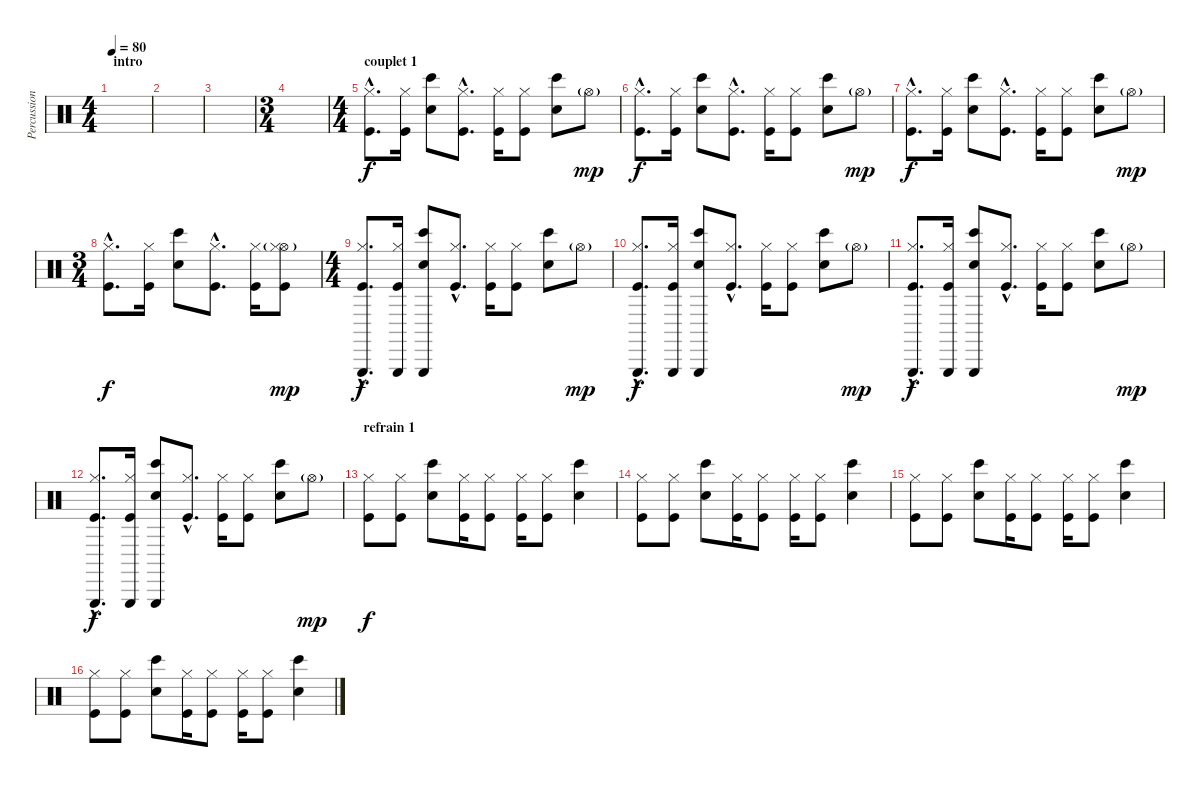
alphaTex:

\track ("Percussions" "Percussion") {instrument percussion}
\staff {score}
\articulation defaults
\ts (4 4)
\section ("" "intro")
\tempo 80
\clef neutral
\ks c
|
|
|
\ts (3 4)
|
\ts (4 4)
\section ("" "couplet 1")
("Hi-Hat (closed)"{hac} "Kick (hit)"{hac}).8{d} ("Hi-Hat (closed)" "Kick (hit)").16 ("Electric Snare (hit)" "Bongo High (hit)").8 ("Hi-Hat (closed)"{hac} "Kick (hit)"{hac}).8{d} ("Hi-Hat (closed)" "Kick (hit)").16 ("Hi-Hat (closed)" "Kick (hit)").8 ("Electric Snare (hit)" "Bongo High (hit)").8 "Hi-Hat (open)"{g}.8{dy mp} |
("Hi-Hat (closed)"{hac} "Kick (hit)"{hac}).8{d dy f} ("Hi-Hat (closed)" "Kick (hit)").16 ("Electric Snare (hit)" "Bongo High (hit)").8 ("Hi-Hat (closed)"{hac} "Kick (hit)"{hac}).8{d} ("Hi-Hat (closed)" "Kick (hit)").16 ("Hi-Hat (closed)" "Kick (hit)").8 ("Electric Snare (hit)" "Bongo High (hit)").8 "Hi-Hat (open)"{g}.8{dy mp} |
("Hi-Hat (closed)"{hac} "Kick (hit)"{hac}).8{d dy f} ("Hi-Hat (closed)" "Kick (hit)").16 ("Electric Snare (hit)" "Bongo High (hit)").8 ("Hi-Hat (closed)"{hac} "Kick (hit)"{hac}).8{d} ("Hi-Hat (closed)" "Kick (hit)").16 ("Hi-Hat (closed)" "Kick (hit)").8 ("Electric Snare (hit)" "Bongo High (hit)").8 "Hi-Hat (open)"{g}.8{dy mp} |
\ts (3 4)
("Hi-Hat (closed)"{hac} "Kick (hit)"{hac}).8{d dy f} ("Hi-Hat (closed)" "Kick (hit)").16 ("Electric Snare (hit)" "Bongo High (hit)").8 ("Hi-Hat (closed)"{hac} "Kick (hit)"{hac}).8{d} ("Hi-Hat (closed)" "Kick (hit)").16 ("Hi-Hat (open)"{g} "Hi-Hat (closed)" "Kick (hit)").8{dy mp} |
\ts (4 4)
("Triangle (hit)"{hac} "Hi-Hat (closed)"{hac} "Kick (hit)"{hac}).8{d dy f} ("Triangle (hit)" "Hi-Hat (closed)" "Kick (hit)").16 ("Triangle (hit)" "Electric Snare (hit)" "Bongo High (hit)").8 ("Hi-Hat (closed)"{hac} "Kick (hit)"{hac}).8{d} ("Hi-Hat (closed)" "Kick (hit)").16 ("Hi-Hat (closed)" "Kick (hit)").8 ("Electric Snare (hit)" "Bongo High (hit)").8 "Hi-Hat (open)"{g}.8{dy mp} |
("Triangle (hit)"{hac} "Hi-Hat (closed)"{hac} "Kick (hit)"{hac}).8{d dy f} ("Triangle (hit)" "Hi-Hat (closed)" "Kick (hit)").16 ("Triangle (hit)" "Electric Snare (hit)" "Bongo High (hit)").8 ("Hi-Hat (closed)"{hac} "Kick (hit)"{hac}).8{d} ("Hi-Hat (closed)" "Kick (hit)").16 ("Hi-Hat (closed)" "Kick (hit)").8 ("Electric Snare (hit)" "Bongo High (hit)").8 "Hi-Hat (open)"{g}.8{dy mp} |
("Triangle (hit)"{hac} "Hi-Hat (closed)"{hac} "Kick (hit)"{hac}).8{d dy f} ("Triangle (hit)" "Hi-Hat (closed)" "Kick (hit)").16 ("Triangle (hit)" "Electric Snare (hit)" "Bongo High (hit)").8 ("Hi-Hat (closed)"{hac} "Kick (hit)"{hac}).8{d} ("Hi-Hat (closed)" "Kick (hit)").16 ("Hi-Hat (closed)" "Kick (hit)").8 ("Electric Snare (hit)" "Bongo High (hit)").8 "Hi-Hat (open)"{g}.8{dy mp} |
("Triangle (hit)"{hac} "Hi-Hat (closed)"{hac} "Kick (hit)"{hac}).8{d dy f} ("Triangle (hit)" "Hi-Hat (closed)" "Kick (hit)").16 ("Triangle (hit)" "Electric Snare (hit)" "Bongo High (hit)").8 ("Hi-Hat (closed)"{hac} "Kick (hit)"{hac}).8{d} ("Hi-Hat (closed)" "Kick (hit)").16 ("Hi-Hat (closed)" "Kick (hit)").8 ("Electric Snare (hit)" "Bongo High (hit)").8 "Hi-Hat (open)"{g}.8{dy mp} |
\section ("" "refrain 1")
("Hi-Hat (closed)" "Kick (hit)").8{dy f} ("Hi-Hat (closed)" "Kick (hit)").8 ("Electric Snare (hit)" "Bongo High (hit)").8 ("Hi-Hat (closed)" "Kick (hit)").16 ("Hi-Hat (closed)" "Kick (hit)").8 ("Hi-Hat (closed)" "Kick (hit)").16 ("Hi-Hat (closed)" "Kick (hit)").8 ("Electric Snare (hit)" "Bongo High (hit)").4 |
("Hi-Hat (closed)" "Kick (hit)").8 ("Hi-Hat (closed)" "Kick (hit)").8 ("Electric Snare (hit)" "Bongo High (hit)").8 ("Hi-Hat (closed)" "Kick (hit)").16 ("Hi-Hat (closed)" "Kick (hit)").8 ("Hi-Hat (closed)" "Kick (hit)").16 ("Hi-Hat (closed)" "Kick (hit)").8 ("Electric Snare (hit)" "Bongo High (hit)").4 |
("Hi-Hat (closed)" "Kick (hit)").8 ("Hi-Hat (closed)" "Kick (hit)").8 ("Electric Snare (hit)" "Bongo High (hit)").8 ("Hi-Hat (closed)" "Kick (hit)").16 ("Hi-Hat (closed)" "Kick (hit)").8 ("Hi-Hat (closed)" "Kick (hit)").16 ("Hi-Hat (closed)" "Kick (hit)").8 ("Electric Snare (hit)" "Bongo High (hit)").4 |
("Hi-Hat (closed)" "Kick (hit)").8 ("Hi-Hat (closed)" "Kick (hit)").8 ("Electric Snare (hit)" "Bongo High (hit)").8 ("Hi-Hat (closed)" "Kick (hit)").16 ("Hi-Hat (closed)" "Kick (hit)").8 ("Hi-Hat (closed)" "Kick (hit)").16 ("Hi-Hat (closed)" "Kick (hit)").8 ("Electric Snare (hit)" "Bongo High (hit)").4
